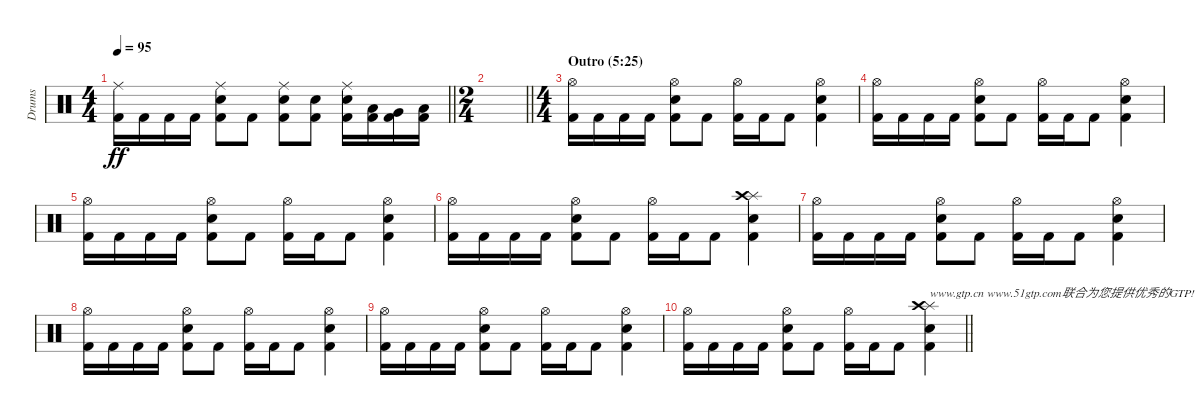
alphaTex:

\track ("Drums" "Drums") {instrument percussion}
\staff {score}
\articulation defaults
\ts (4 4)
\tempo 95
\clef neutral
\barLineRight lightlight
\ks c
("Ride (middle)" "Kick (hit) 2").16{dy ff} "Kick (hit) 2".16 "Kick (hit) 2".16 "Kick (hit) 2".16 ("Ride (middle)" "Snare (hit) 2" "Kick (hit) 2").8 "Kick (hit) 2".8 ("Ride (middle)" "Snare (hit) 2" "Kick (hit) 2").8 ("Snare (hit) 2" "Kick (hit) 2").8 ("Ride (middle)" "Snare (hit) 2" "Kick (hit) 2").16 ("Low Tom (hit)" "Kick (hit) 2").16 ("Very Low Tom (hit)" "Kick (hit) 2").16 ("Low Floor Tom (hit)" "Kick (hit) 2").16 |
\ts (2 4)
\barLineRight lightlight
|
\ts (4 4)
\section ("" "Outro (5:25)")
("Hi-Hat (open)" "Kick (hit) 2").16 "Kick (hit) 2".16 "Kick (hit) 2".16 "Kick (hit) 2".16 ("Hi-Hat (open)" "Snare (hit) 2" "Kick (hit) 2").8 "Kick (hit) 2".8 ("Hi-Hat (open)" "Kick (hit) 2").16 "Kick (hit) 2".16 "Kick (hit) 2".8 ("Hi-Hat (open)" "Snare (hit) 2" "Kick (hit) 2").4 |
("Hi-Hat (open)" "Kick (hit) 2").16 "Kick (hit) 2".16 "Kick (hit) 2".16 "Kick (hit) 2".16 ("Hi-Hat (open)" "Snare (hit) 2" "Kick (hit) 2").8 "Kick (hit) 2".8 ("Hi-Hat (open)" "Kick (hit) 2").16 "Kick (hit) 2".16 "Kick (hit) 2".8 ("Hi-Hat (open)" "Snare (hit) 2" "Kick (hit) 2").4 |
("Hi-Hat (open)" "Kick (hit) 2").16 "Kick (hit) 2".16 "Kick (hit) 2".16 "Kick (hit) 2".16 ("Hi-Hat (open)" "Snare (hit) 2" "Kick (hit) 2").8 "Kick (hit) 2".8 ("Hi-Hat (open)" "Kick (hit) 2").16 "Kick (hit) 2".16 "Kick (hit) 2".8 ("Hi-Hat (open)" "Snare (hit) 2" "Kick (hit) 2").4 |
("Hi-Hat (open)" "Kick (hit) 2").16 "Kick (hit) 2".16 "Kick (hit) 2".16 "Kick (hit) 2".16 ("Hi-Hat (open)" "Snare (hit) 2" "Kick (hit) 2").8 "Kick (hit) 2".8 ("Hi-Hat (open)" "Kick (hit) 2").16 "Kick (hit) 2".16 "Kick (hit) 2".8 ("Splash (hit)" "Crash high (hit)" "Snare (hit) 2" "Kick (hit) 2").4 |
("Hi-Hat (open)" "Kick (hit) 2").16 "Kick (hit) 2".16 "Kick (hit) 2".16 "Kick (hit) 2".16 ("Hi-Hat (open)" "Snare (hit) 2" "Kick (hit) 2").8 "Kick (hit) 2".8 ("Hi-Hat (open)" "Kick (hit) 2").16 "Kick (hit) 2".16 "Kick (hit) 2".8 ("Hi-Hat (open)" "Snare (hit) 2" "Kick (hit) 2").4 |
("Hi-Hat (open)" "Kick (hit) 2").16 "Kick (hit) 2".16 "Kick (hit) 2".16 "Kick (hit) 2".16 ("Hi-Hat (open)" "Snare (hit) 2" "Kick (hit) 2").8 "Kick (hit) 2".8 ("Hi-Hat (open)" "Kick (hit) 2").16 "Kick (hit) 2".16 "Kick (hit) 2".8 ("Hi-Hat (open)" "Snare (hit) 2" "Kick (hit) 2").4 |
("Hi-Hat (open)" "Kick (hit) 2").16 "Kick (hit) 2".16 "Kick (hit) 2".16 "Kick (hit) 2".16 ("Hi-Hat (open)" "Snare (hit) 2" "Kick (hit) 2").8 "Kick (hit) 2".8 ("Hi-Hat (open)" "Kick (hit) 2").16 "Kick (hit) 2".16 "Kick (hit) 2".8 ("Hi-Hat (open)" "Snare (hit) 2" "Kick (hit) 2").4 |
\barLineRight lightlight
("Hi-Hat (open)" "Kick (hit) 2").16 "Kick (hit) 2".16 "Kick (hit) 2".16 "Kick (hit) 2".16 ("Hi-Hat (open)" "Snare (hit) 2" "Kick (hit) 2").8 "Kick (hit) 2".8 ("Hi-Hat (open)" "Kick (hit) 2").16 "Kick (hit) 2".16 "Kick (hit) 2".8 ("Splash (hit)" "Crash high (hit)" "Snare (hit) 2" "Kick (hit) 2").4{txt "www.gtp.cn www.51gtp.com联合为您提供优秀的GTP!"}
